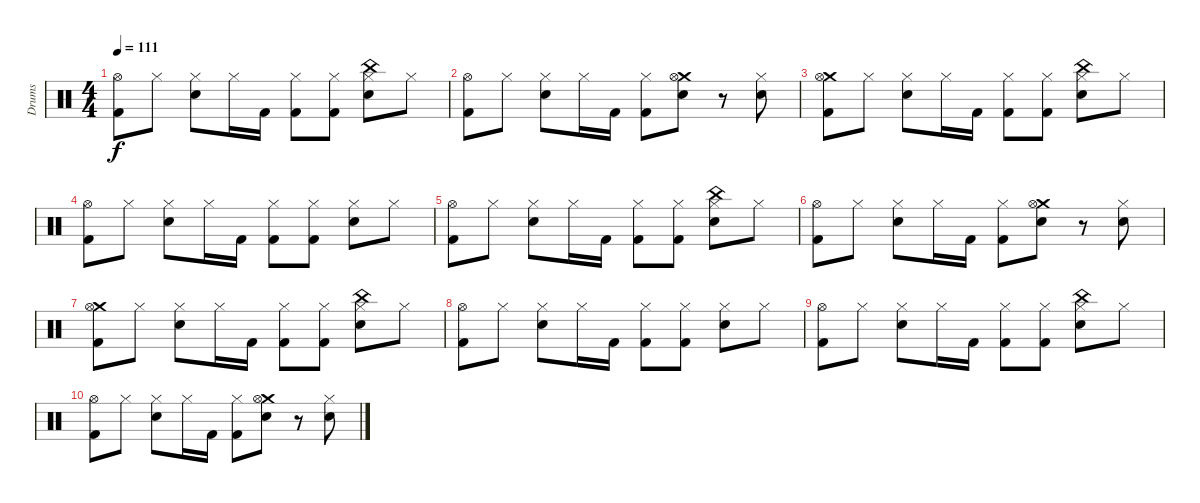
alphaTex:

\track ("Drums" "Drums") {instrument percussion}
\staff {score}
\articulation defaults
\ts (4 4)
\tempo 111
\clef neutral
\ks c
("Hi-Hat (open)" "Kick (hit) 2").8{dy f} "Hi-Hat (closed)".8 ("Hi-Hat (closed)" "Snare (hit) 2").8 "Hi-Hat (closed)".16 "Kick (hit) 2".16 ("Hi-Hat (closed)" "Kick (hit) 2").8 ("Hi-Hat (closed)" "Kick (hit) 2").8 ("China (hit)" "Hi-Hat (closed)" "Snare (hit) 2").8 "Hi-Hat (closed)".8 |
("Hi-Hat (open)" "Kick (hit) 2").8 "Hi-Hat (closed)".8 ("Hi-Hat (closed)" "Snare (hit) 2").8 "Hi-Hat (closed)".16 "Kick (hit) 2".16 ("Hi-Hat (closed)" "Kick (hit) 2").8 ("Crash medium (hit)" "Hi-Hat (open)" "Snare (hit) 2").8 r.8 ("Snare (hit) 2" "Hi-Hat (closed)").8 |
("Crash medium (hit)" "Hi-Hat (open)" "Kick (hit) 2").8 "Hi-Hat (closed)".8 ("Hi-Hat (closed)" "Snare (hit) 2").8 "Hi-Hat (closed)".16 "Kick (hit) 2".16 ("Hi-Hat (closed)" "Kick (hit) 2").8 ("Hi-Hat (closed)" "Kick (hit) 2").8 ("China (hit)" "Hi-Hat (closed)" "Snare (hit) 2").8 "Hi-Hat (closed)".8 |
("Hi-Hat (open)" "Kick (hit) 2").8 "Hi-Hat (closed)".8 ("Hi-Hat (closed)" "Snare (hit) 2").8 "Hi-Hat (closed)".16 "Kick (hit) 2".16 ("Hi-Hat (closed)" "Kick (hit) 2").8 ("Hi-Hat (closed)" "Kick (hit) 2").8 ("Hi-Hat (closed)" "Snare (hit) 2").8 "Hi-Hat (closed)".8 |
("Hi-Hat (open)" "Kick (hit) 2").8 "Hi-Hat (closed)".8 ("Hi-Hat (closed)" "Snare (hit) 2").8 "Hi-Hat (closed)".16 "Kick (hit) 2".16 ("Hi-Hat (closed)" "Kick (hit) 2").8 ("Hi-Hat (closed)" "Kick (hit) 2").8 ("China (hit)" "Hi-Hat (closed)" "Snare (hit) 2").8 "Hi-Hat (closed)".8 |
("Hi-Hat (open)" "Kick (hit) 2").8 "Hi-Hat (closed)".8 ("Hi-Hat (closed)" "Snare (hit) 2").8 "Hi-Hat (closed)".16 "Kick (hit) 2".16 ("Hi-Hat (closed)" "Kick (hit) 2").8 ("Crash medium (hit)" "Hi-Hat (open)" "Snare (hit) 2").8 r.8 ("Snare (hit) 2" "Hi-Hat (closed)").8 |
("Crash medium (hit)" "Hi-Hat (open)" "Kick (hit) 2").8 "Hi-Hat (closed)".8 ("Hi-Hat (closed)" "Snare (hit) 2").8 "Hi-Hat (closed)".16 "Kick (hit) 2".16 ("Hi-Hat (closed)" "Kick (hit) 2").8 ("Hi-Hat (closed)" "Kick (hit) 2").8 ("China (hit)" "Hi-Hat (closed)" "Snare (hit) 2").8 "Hi-Hat (closed)".8 |
("Hi-Hat (open)" "Kick (hit) 2").8 "Hi-Hat (closed)".8 ("Hi-Hat (closed)" "Snare (hit) 2").8 "Hi-Hat (closed)".16 "Kick (hit) 2".16 ("Hi-Hat (closed)" "Kick (hit) 2").8 ("Hi-Hat (closed)" "Kick (hit) 2").8 ("Hi-Hat (closed)" "Snare (hit) 2").8 "Hi-Hat (closed)".8 |
("Hi-Hat (open)" "Kick (hit) 2").8 "Hi-Hat (closed)".8 ("Hi-Hat (closed)" "Snare (hit) 2").8 "Hi-Hat (closed)".16 "Kick (hit) 2".16 ("Hi-Hat (closed)" "Kick (hit) 2").8 ("Hi-Hat (closed)" "Kick (hit) 2").8 ("China (hit)" "Hi-Hat (closed)" "Snare (hit) 2").8 "Hi-Hat (closed)".8 |
("Hi-Hat (open)" "Kick (hit) 2").8 "Hi-Hat (closed)".8 ("Hi-Hat (closed)" "Snare (hit) 2").8 "Hi-Hat (closed)".16 "Kick (hit) 2".16 ("Hi-Hat (closed)" "Kick (hit) 2").8 ("Crash medium (hit)" "Hi-Hat (open)" "Snare (hit) 2").8 r.8 ("Snare (hit) 2" "Hi-Hat (closed)").8
